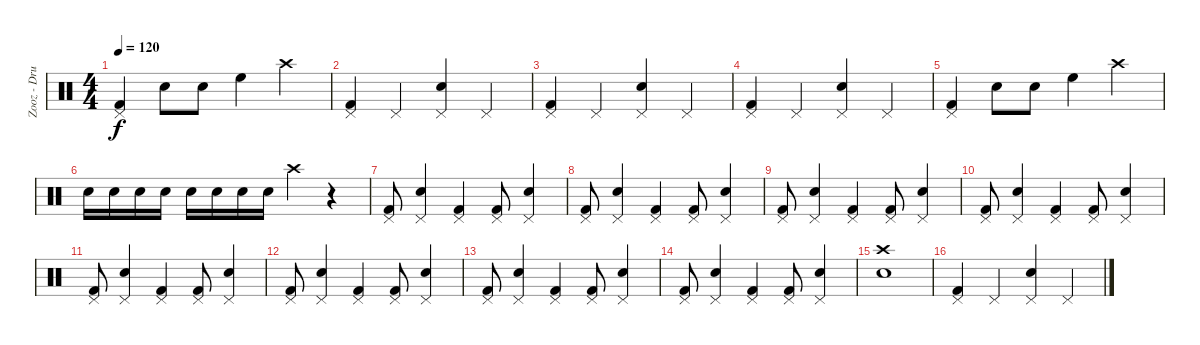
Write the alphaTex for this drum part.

\track ("Zooz - Drums" "Zooz - Dru") {instrument percussion}
\staff {score}
\articulation defaults
\ts (4 4)
\tempo 120
\clef neutral
\ks c
("Pedal Hi-Hat (hit)" "Kick (hit) 2").4{dy f} "Electric Snare (hit)".8 "Electric Snare (hit)".8 "High Floor Tom (hit)".4 "Crash high (hit)".4 |
("Pedal Hi-Hat (hit)" "Kick (hit) 2").4 "Pedal Hi-Hat (hit)".4 ("Pedal Hi-Hat (hit)" "Electric Snare (hit)").4 "Pedal Hi-Hat (hit)".4 |
("Pedal Hi-Hat (hit)" "Kick (hit) 2").4 "Pedal Hi-Hat (hit)".4 ("Pedal Hi-Hat (hit)" "Electric Snare (hit)").4 "Pedal Hi-Hat (hit)".4 |
("Pedal Hi-Hat (hit)" "Kick (hit) 2").4 "Pedal Hi-Hat (hit)".4 ("Pedal Hi-Hat (hit)" "Electric Snare (hit)").4 "Pedal Hi-Hat (hit)".4 |
("Pedal Hi-Hat (hit)" "Kick (hit) 2").4 "Electric Snare (hit)".8 "Electric Snare (hit)".8 "High Floor Tom (hit)".4 "Crash high (hit)".4 |
"Electric Snare (hit)".16 "Electric Snare (hit)".16 "Electric Snare (hit)".16 "Electric Snare (hit)".16 "Electric Snare (hit)".16 "Electric Snare (hit)".16 "Electric Snare (hit)".16 "Electric Snare (hit)".16 "Crash high (hit)".4 r.4 |
("Pedal Hi-Hat (hit)" "Kick (hit) 2").8 ("Pedal Hi-Hat (hit)" "Electric Snare (hit)").4 ("Pedal Hi-Hat (hit)" "Kick (hit) 2").4 ("Pedal Hi-Hat (hit)" "Kick (hit) 2").8 ("Electric Snare (hit)" "Pedal Hi-Hat (hit)").4 |
("Pedal Hi-Hat (hit)" "Kick (hit) 2").8 ("Pedal Hi-Hat (hit)" "Electric Snare (hit)").4 ("Pedal Hi-Hat (hit)" "Kick (hit) 2").4 ("Pedal Hi-Hat (hit)" "Kick (hit) 2").8 ("Electric Snare (hit)" "Pedal Hi-Hat (hit)").4 |
("Pedal Hi-Hat (hit)" "Kick (hit) 2").8 ("Pedal Hi-Hat (hit)" "Electric Snare (hit)").4 ("Pedal Hi-Hat (hit)" "Kick (hit) 2").4 ("Pedal Hi-Hat (hit)" "Kick (hit) 2").8 ("Electric Snare (hit)" "Pedal Hi-Hat (hit)").4 |
("Pedal Hi-Hat (hit)" "Kick (hit) 2").8 ("Pedal Hi-Hat (hit)" "Electric Snare (hit)").4 ("Pedal Hi-Hat (hit)" "Kick (hit) 2").4 ("Pedal Hi-Hat (hit)" "Kick (hit) 2").8 ("Electric Snare (hit)" "Pedal Hi-Hat (hit)").4 |
("Pedal Hi-Hat (hit)" "Kick (hit) 2").8 ("Pedal Hi-Hat (hit)" "Electric Snare (hit)").4 ("Pedal Hi-Hat (hit)" "Kick (hit) 2").4 ("Pedal Hi-Hat (hit)" "Kick (hit) 2").8 ("Electric Snare (hit)" "Pedal Hi-Hat (hit)").4 |
("Pedal Hi-Hat (hit)" "Kick (hit) 2").8 ("Pedal Hi-Hat (hit)" "Electric Snare (hit)").4 ("Pedal Hi-Hat (hit)" "Kick (hit) 2").4 ("Pedal Hi-Hat (hit)" "Kick (hit) 2").8 ("Electric Snare (hit)" "Pedal Hi-Hat (hit)").4 |
("Pedal Hi-Hat (hit)" "Kick (hit) 2").8 ("Pedal Hi-Hat (hit)" "Electric Snare (hit)").4 ("Pedal Hi-Hat (hit)" "Kick (hit) 2").4 ("Pedal Hi-Hat (hit)" "Kick (hit) 2").8 ("Electric Snare (hit)" "Pedal Hi-Hat (hit)").4 |
("Pedal Hi-Hat (hit)" "Kick (hit) 2").8 ("Pedal Hi-Hat (hit)" "Electric Snare (hit)").4 ("Pedal Hi-Hat (hit)" "Kick (hit) 2").4 ("Pedal Hi-Hat (hit)" "Kick (hit) 2").8 ("Electric Snare (hit)" "Pedal Hi-Hat (hit)").4 |
("Crash high (hit)" "Electric Snare (hit)").1 |
("Pedal Hi-Hat (hit)" "Kick (hit) 2").4 "Pedal Hi-Hat (hit)".4 ("Pedal Hi-Hat (hit)" "Electric Snare (hit)").4 "Pedal Hi-Hat (hit)".4
